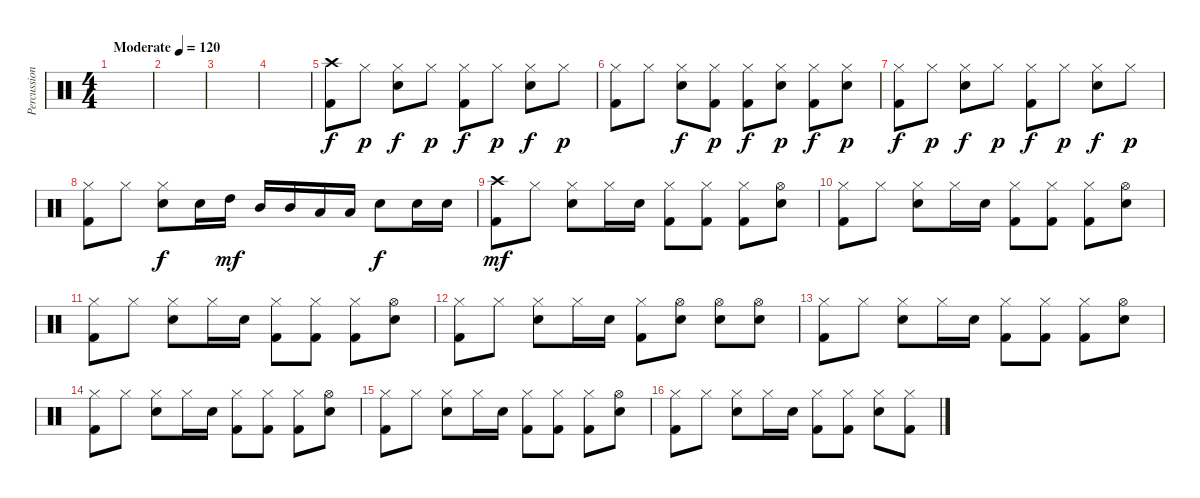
\track ("Percussion" "Percussion") {instrument percussion}
\staff {score}
\articulation defaults
\ts (4 4)
\tempo (120 "Moderate")
\clef neutral
\ks c
|
|
|
|
("Crash high (hit)" "Kick (hit) 2").8 "Hi-Hat (closed)".8{dy p} ("Hi-Hat (closed)" "Snare (hit) 2").8{dy f} "Hi-Hat (closed)".8{dy p} ("Hi-Hat (closed)" "Kick (hit) 2").8{dy f} "Hi-Hat (closed)".8{dy p} ("Hi-Hat (closed)" "Snare (hit) 2").8{dy f} "Hi-Hat (closed)".8{dy p} |
("Hi-Hat (closed)" "Kick (hit) 2").8 "Hi-Hat (closed)".8 ("Hi-Hat (closed)" "Snare (hit) 2").8{dy f} ("Hi-Hat (closed)" "Kick (hit) 2").8{dy p} ("Hi-Hat (closed)" "Kick (hit) 2").8{dy f} ("Hi-Hat (closed)" "Snare (hit) 2").8{dy p} ("Hi-Hat (closed)" "Kick (hit) 2").8{dy f} ("Hi-Hat (closed)" "Snare (hit) 2").8{dy p} |
("Hi-Hat (closed)" "Kick (hit) 2").8{dy f} "Hi-Hat (closed)".8{dy p} ("Hi-Hat (closed)" "Snare (hit) 2").8{dy f} "Hi-Hat (closed)".8{dy p} ("Hi-Hat (closed)" "Kick (hit) 2").8{dy f} "Hi-Hat (closed)".8{dy p} ("Hi-Hat (closed)" "Snare (hit) 2").8{dy f} "Hi-Hat (closed)".8{dy p} |
("Hi-Hat (closed)" "Kick (hit) 2").8 "Hi-Hat (closed)".8 ("Hi-Hat (closed)" "Snare (hit) 2").8{dy f} "Snare (hit) 2".16 "High Tom (hit)".16{dy mf} "Mid Tom (hit)".16 "Mid Tom (hit)".16 "Low Tom (hit)".16 "Low Tom (hit)".16 "Snare (hit) 2".8{dy f} "Snare (hit) 2".16 "Snare (hit) 2".16 |
("Crash high (hit)" "Kick (hit) 2").8{dy mf} "Hi-Hat (closed)".8 ("Hi-Hat (closed)" "Snare (hit) 2").8 "Hi-Hat (closed)".16 "Snare (hit) 2".16 ("Hi-Hat (closed)" "Kick (hit) 2").8 ("Hi-Hat (closed)" "Kick (hit) 2").8 ("Hi-Hat (closed)" "Kick (hit) 2").8 ("Hi-Hat (open)" "Snare (hit) 2").8 |
("Hi-Hat (closed)" "Kick (hit) 2").8 "Hi-Hat (closed)".8 ("Hi-Hat (closed)" "Snare (hit) 2").8 "Hi-Hat (closed)".16 "Snare (hit) 2".16 ("Hi-Hat (closed)" "Kick (hit) 2").8 ("Hi-Hat (closed)" "Kick (hit) 2").8 ("Hi-Hat (closed)" "Kick (hit) 2").8 ("Hi-Hat (open)" "Snare (hit) 2").8 |
("Hi-Hat (closed)" "Kick (hit) 2").8 "Hi-Hat (closed)".8 ("Hi-Hat (closed)" "Snare (hit) 2").8 "Hi-Hat (closed)".16 "Snare (hit) 2".16 ("Hi-Hat (closed)" "Kick (hit) 2").8 ("Hi-Hat (closed)" "Kick (hit) 2").8 ("Hi-Hat (closed)" "Kick (hit) 2").8 ("Hi-Hat (open)" "Snare (hit) 2").8 |
("Hi-Hat (closed)" "Kick (hit) 2").8 "Hi-Hat (closed)".8 ("Hi-Hat (closed)" "Snare (hit) 2").8 "Hi-Hat (closed)".16 "Snare (hit) 2".16 ("Hi-Hat (closed)" "Kick (hit) 2").8 ("Hi-Hat (open)" "Snare (hit) 2").8 ("Hi-Hat (open)" "Snare (hit) 2").8 ("Hi-Hat (open)" "Snare (hit) 2").8 |
("Hi-Hat (closed)" "Kick (hit) 2").8 "Hi-Hat (closed)".8 ("Hi-Hat (closed)" "Snare (hit) 2").8 "Hi-Hat (closed)".16 "Snare (hit) 2".16 ("Hi-Hat (closed)" "Kick (hit) 2").8 ("Hi-Hat (closed)" "Kick (hit) 2").8 ("Hi-Hat (closed)" "Kick (hit) 2").8 ("Hi-Hat (open)" "Snare (hit) 2").8 |
("Hi-Hat (closed)" "Kick (hit) 2").8 "Hi-Hat (closed)".8 ("Hi-Hat (closed)" "Snare (hit) 2").8 "Hi-Hat (closed)".16 "Snare (hit) 2".16 ("Hi-Hat (closed)" "Kick (hit) 2").8 ("Hi-Hat (closed)" "Kick (hit) 2").8 ("Hi-Hat (closed)" "Kick (hit) 2").8 ("Hi-Hat (open)" "Snare (hit) 2").8 |
("Hi-Hat (closed)" "Kick (hit) 2").8 "Hi-Hat (closed)".8 ("Hi-Hat (closed)" "Snare (hit) 2").8 "Hi-Hat (closed)".16 "Snare (hit) 2".16 ("Hi-Hat (closed)" "Kick (hit) 2").8 ("Hi-Hat (closed)" "Kick (hit) 2").8 ("Hi-Hat (closed)" "Kick (hit) 2").8 ("Hi-Hat (open)" "Snare (hit) 2").8 |
("Hi-Hat (closed)" "Kick (hit) 2").8 "Hi-Hat (closed)".8 ("Hi-Hat (closed)" "Snare (hit) 2").8 "Hi-Hat (closed)".16 "Snare (hit) 2".16 ("Hi-Hat (closed)" "Kick (hit) 2").8 ("Hi-Hat (closed)" "Kick (hit) 2").8 ("Hi-Hat (closed)" "Snare (hit) 2").8 ("Hi-Hat (closed)" "Kick (hit) 2").8
